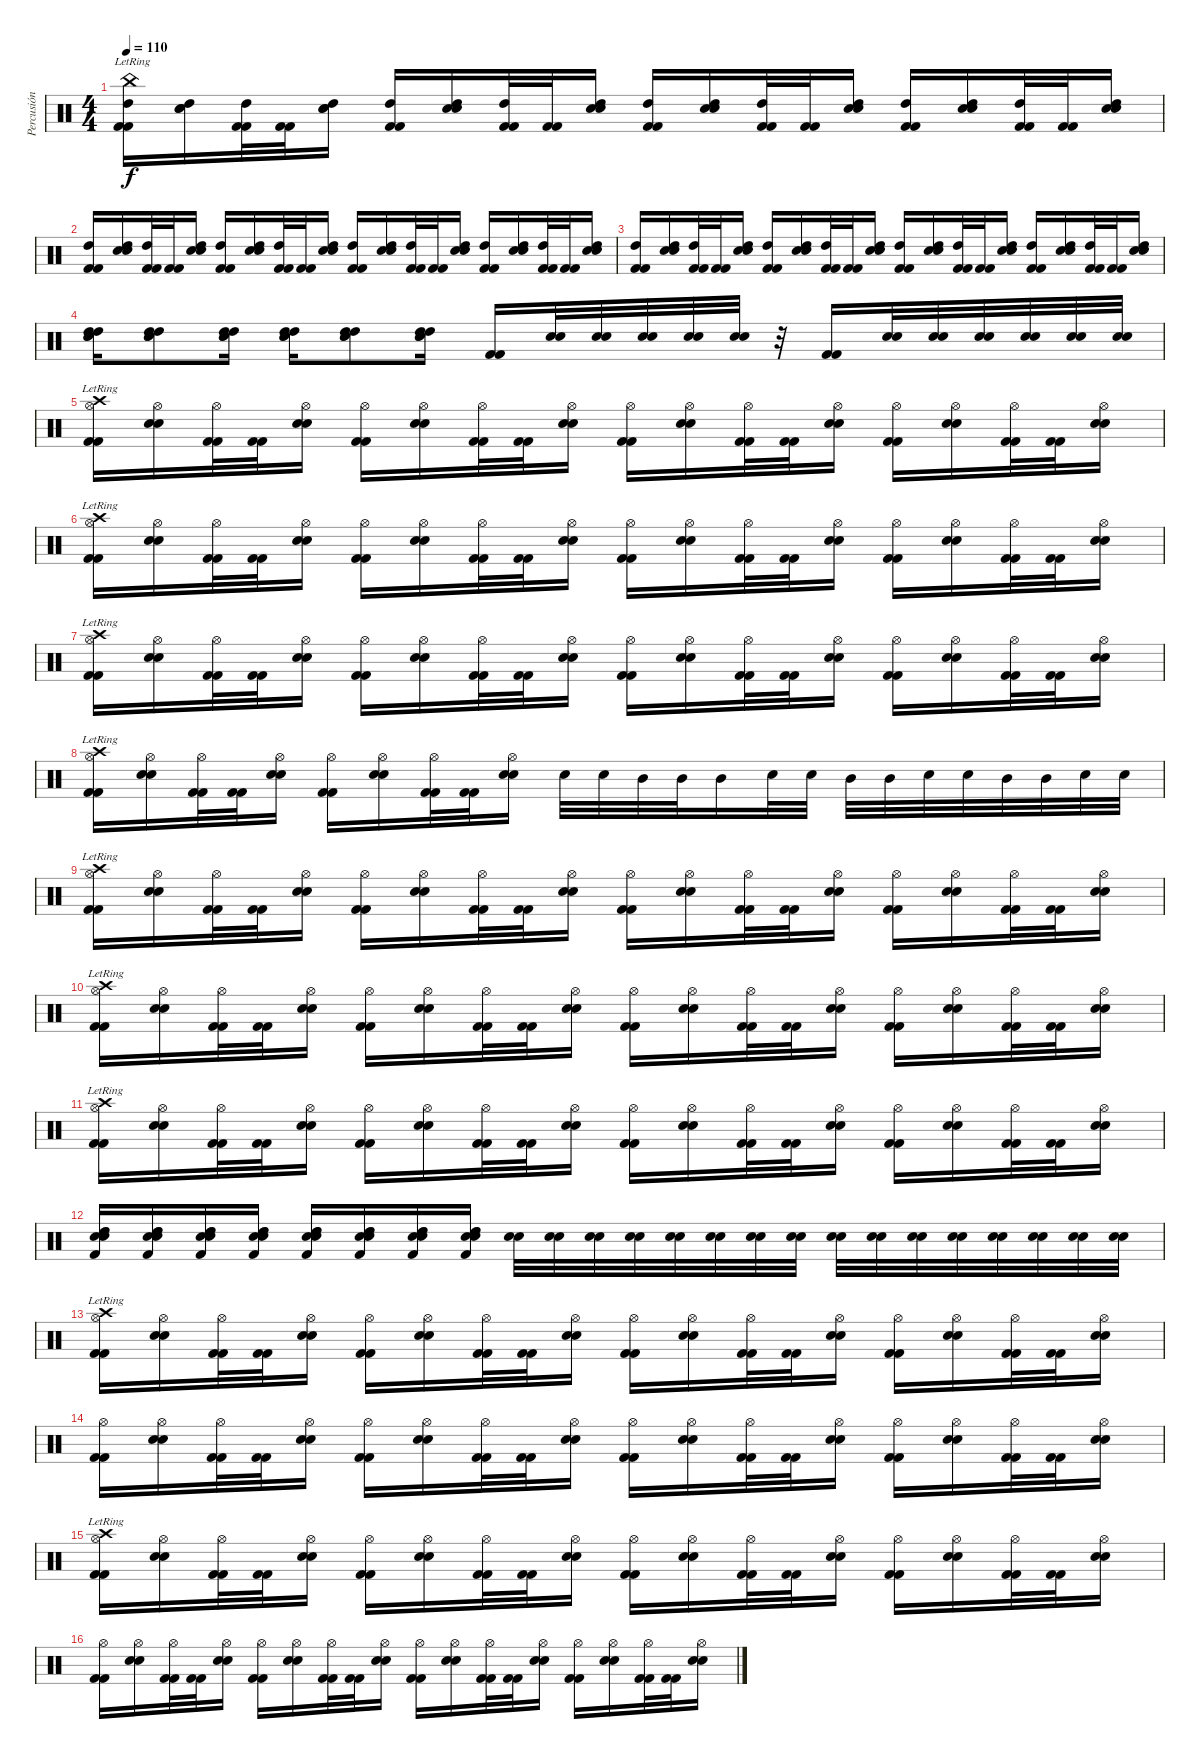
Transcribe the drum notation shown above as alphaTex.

\track ("Percusión" "Percusión") {instrument percussion}
\staff {score}
\articulation defaults
\ts (4 4)
\tempo 110
\clef neutral
\ks c
("Kick (hit) 2" "Kick (hit) 2" "High Tom (hit)" "China (hit)"{lr}).16{dy f} ("Snare (hit) 2" "Snare (hit) 2" "High Tom (hit)").16 ("Kick (hit) 2" "Kick (hit) 2" "High Tom (hit)").32 ("Kick (hit) 2" "Kick (hit) 2").32 ("Snare (hit) 2" "Snare (hit) 2" "High Tom (hit)").16 ("Kick (hit) 2" "Kick (hit) 2" "High Tom (hit)").16 ("Snare (hit) 2" "Snare (hit) 2" "High Tom (hit)").16 ("Kick (hit) 2" "Kick (hit) 2" "High Tom (hit)").32 ("Kick (hit) 2" "Kick (hit) 2").32 ("Snare (hit) 2" "Snare (hit) 2" "High Tom (hit)").16 ("Kick (hit) 2" "Kick (hit) 2" "High Tom (hit)").16 ("Snare (hit) 2" "Snare (hit) 2" "High Tom (hit)").16 ("Kick (hit) 2" "Kick (hit) 2" "High Tom (hit)").32 ("Kick (hit) 2" "Kick (hit) 2").32 ("Snare (hit) 2" "Snare (hit) 2" "High Tom (hit)").16 ("Kick (hit) 2" "Kick (hit) 2" "High Tom (hit)").16 ("Snare (hit) 2" "Snare (hit) 2" "High Tom (hit)").16 ("Kick (hit) 2" "Kick (hit) 2" "High Tom (hit)").32 ("Kick (hit) 2" "Kick (hit) 2").32 ("Snare (hit) 2" "Snare (hit) 2" "High Tom (hit)").16 |
("Kick (hit) 2" "Kick (hit) 2" "High Tom (hit)").16 ("Snare (hit) 2" "Snare (hit) 2" "High Tom (hit)").16 ("Kick (hit) 2" "Kick (hit) 2" "High Tom (hit)").32 ("Kick (hit) 2" "Kick (hit) 2").32 ("Snare (hit) 2" "Snare (hit) 2" "High Tom (hit)").16 ("Kick (hit) 2" "Kick (hit) 2" "High Tom (hit)").16 ("Snare (hit) 2" "Snare (hit) 2" "High Tom (hit)").16 ("Kick (hit) 2" "Kick (hit) 2" "High Tom (hit)").32 ("Kick (hit) 2" "Kick (hit) 2").32 ("Snare (hit) 2" "Snare (hit) 2" "High Tom (hit)").16 ("Kick (hit) 2" "Kick (hit) 2" "High Tom (hit)").16 ("Snare (hit) 2" "Snare (hit) 2" "High Tom (hit)").16 ("Kick (hit) 2" "Kick (hit) 2" "High Tom (hit)").32 ("Kick (hit) 2" "Kick (hit) 2").32 ("Snare (hit) 2" "Snare (hit) 2" "High Tom (hit)").16 ("Kick (hit) 2" "Kick (hit) 2" "High Tom (hit)").16 ("Snare (hit) 2" "Snare (hit) 2" "High Tom (hit)").16 ("Kick (hit) 2" "Kick (hit) 2" "High Tom (hit)").32 ("Kick (hit) 2" "Kick (hit) 2").32 ("Snare (hit) 2" "Snare (hit) 2" "High Tom (hit)").16 |
("Kick (hit) 2" "Kick (hit) 2" "High Tom (hit)").16 ("Snare (hit) 2" "Snare (hit) 2" "High Tom (hit)").16 ("Kick (hit) 2" "Kick (hit) 2" "High Tom (hit)").32 ("Kick (hit) 2" "Kick (hit) 2").32 ("Snare (hit) 2" "Snare (hit) 2" "High Tom (hit)").16 ("Kick (hit) 2" "Kick (hit) 2" "High Tom (hit)").16 ("Snare (hit) 2" "Snare (hit) 2" "High Tom (hit)").16 ("Kick (hit) 2" "Kick (hit) 2" "High Tom (hit)").32 ("Kick (hit) 2" "Kick (hit) 2").32 ("Snare (hit) 2" "Snare (hit) 2" "High Tom (hit)").16 ("Kick (hit) 2" "Kick (hit) 2" "High Tom (hit)").16 ("Snare (hit) 2" "Snare (hit) 2" "High Tom (hit)").16 ("Kick (hit) 2" "Kick (hit) 2" "High Tom (hit)").32 ("Kick (hit) 2" "Kick (hit) 2").32 ("Snare (hit) 2" "Snare (hit) 2" "High Tom (hit)").16 ("Kick (hit) 2" "Kick (hit) 2" "High Tom (hit)").16 ("Snare (hit) 2" "Snare (hit) 2" "High Tom (hit)").16 ("Kick (hit) 2" "Kick (hit) 2" "High Tom (hit)").32 ("Kick (hit) 2" "Kick (hit) 2").32 ("Snare (hit) 2" "Snare (hit) 2" "High Tom (hit)").16 |
("Snare (hit) 2" "Snare (hit) 2" "High Tom (hit)" "High Tom (hit)").16 ("Snare (hit) 2" "Snare (hit) 2" "High Tom (hit)" "High Tom (hit)").8 ("Snare (hit) 2" "Snare (hit) 2" "High Tom (hit)" "High Tom (hit)").16 ("Snare (hit) 2" "Snare (hit) 2" "High Tom (hit)" "High Tom (hit)").16 ("Snare (hit) 2" "Snare (hit) 2" "High Tom (hit)" "High Tom (hit)").8 ("Snare (hit) 2" "Snare (hit) 2" "High Tom (hit)" "High Tom (hit)").16 ("Kick (hit) 2" "Kick (hit) 2").16 ("Snare (hit) 2" "Snare (hit) 2").32 ("Snare (hit) 2" "Snare (hit) 2").32 ("Snare (hit) 2" "Snare (hit) 2").32 ("Snare (hit) 2" "Snare (hit) 2").32 ("Snare (hit) 2" "Snare (hit) 2").32 r.32 ("Kick (hit) 2" "Kick (hit) 2").16 ("Snare (hit) 2" "Snare (hit) 2").32 ("Snare (hit) 2" "Snare (hit) 2").32 ("Snare (hit) 2" "Snare (hit) 2").32 ("Snare (hit) 2" "Snare (hit) 2").32 ("Snare (hit) 2" "Snare (hit) 2").32 ("Snare (hit) 2" "Snare (hit) 2").32 |
("Kick (hit) 2" "Kick (hit) 2" "Hi-Hat (open)" "Crash high (hit)"{lr}).16 ("Snare (hit) 2" "Snare (hit) 2" "Hi-Hat (open)").16 ("Kick (hit) 2" "Kick (hit) 2" "Hi-Hat (open)").32 ("Kick (hit) 2" "Kick (hit) 2").32 ("Snare (hit) 2" "Snare (hit) 2" "Hi-Hat (open)").16 ("Kick (hit) 2" "Kick (hit) 2" "Hi-Hat (open)").16 ("Snare (hit) 2" "Snare (hit) 2" "Hi-Hat (open)").16 ("Kick (hit) 2" "Kick (hit) 2" "Hi-Hat (open)").32 ("Kick (hit) 2" "Kick (hit) 2").32 ("Snare (hit) 2" "Snare (hit) 2" "Hi-Hat (open)").16 ("Kick (hit) 2" "Kick (hit) 2" "Hi-Hat (open)").16 ("Snare (hit) 2" "Snare (hit) 2" "Hi-Hat (open)").16 ("Kick (hit) 2" "Kick (hit) 2" "Hi-Hat (open)").32 ("Kick (hit) 2" "Kick (hit) 2").32 ("Snare (hit) 2" "Snare (hit) 2" "Hi-Hat (open)").16 ("Kick (hit) 2" "Kick (hit) 2" "Hi-Hat (open)").16 ("Snare (hit) 2" "Snare (hit) 2" "Hi-Hat (open)").16 ("Kick (hit) 2" "Kick (hit) 2" "Hi-Hat (open)").32 ("Kick (hit) 2" "Kick (hit) 2").32 ("Snare (hit) 2" "Snare (hit) 2" "Hi-Hat (open)").16 |
("Kick (hit) 2" "Kick (hit) 2" "Hi-Hat (open)" "Crash high (hit)"{lr}).16 ("Snare (hit) 2" "Snare (hit) 2" "Hi-Hat (open)").16 ("Kick (hit) 2" "Kick (hit) 2" "Hi-Hat (open)").32 ("Kick (hit) 2" "Kick (hit) 2").32 ("Snare (hit) 2" "Snare (hit) 2" "Hi-Hat (open)").16 ("Kick (hit) 2" "Kick (hit) 2" "Hi-Hat (open)").16 ("Snare (hit) 2" "Snare (hit) 2" "Hi-Hat (open)").16 ("Kick (hit) 2" "Kick (hit) 2" "Hi-Hat (open)").32 ("Kick (hit) 2" "Kick (hit) 2").32 ("Snare (hit) 2" "Snare (hit) 2" "Hi-Hat (open)").16 ("Kick (hit) 2" "Kick (hit) 2" "Hi-Hat (open)").16 ("Snare (hit) 2" "Snare (hit) 2" "Hi-Hat (open)").16 ("Kick (hit) 2" "Kick (hit) 2" "Hi-Hat (open)").32 ("Kick (hit) 2" "Kick (hit) 2").32 ("Snare (hit) 2" "Snare (hit) 2" "Hi-Hat (open)").16 ("Kick (hit) 2" "Kick (hit) 2" "Hi-Hat (open)").16 ("Snare (hit) 2" "Snare (hit) 2" "Hi-Hat (open)").16 ("Kick (hit) 2" "Kick (hit) 2" "Hi-Hat (open)").32 ("Kick (hit) 2" "Kick (hit) 2").32 ("Snare (hit) 2" "Snare (hit) 2" "Hi-Hat (open)").16 |
("Kick (hit) 2" "Kick (hit) 2" "Hi-Hat (open)" "Crash high (hit)"{lr}).16 ("Snare (hit) 2" "Snare (hit) 2" "Hi-Hat (open)").16 ("Kick (hit) 2" "Kick (hit) 2" "Hi-Hat (open)").32 ("Kick (hit) 2" "Kick (hit) 2").32 ("Snare (hit) 2" "Snare (hit) 2" "Hi-Hat (open)").16 ("Kick (hit) 2" "Kick (hit) 2" "Hi-Hat (open)").16 ("Snare (hit) 2" "Snare (hit) 2" "Hi-Hat (open)").16 ("Kick (hit) 2" "Kick (hit) 2" "Hi-Hat (open)").32 ("Kick (hit) 2" "Kick (hit) 2").32 ("Snare (hit) 2" "Snare (hit) 2" "Hi-Hat (open)").16 ("Kick (hit) 2" "Kick (hit) 2" "Hi-Hat (open)").16 ("Snare (hit) 2" "Snare (hit) 2" "Hi-Hat (open)").16 ("Kick (hit) 2" "Kick (hit) 2" "Hi-Hat (open)").32 ("Kick (hit) 2" "Kick (hit) 2").32 ("Snare (hit) 2" "Snare (hit) 2" "Hi-Hat (open)").16 ("Kick (hit) 2" "Kick (hit) 2" "Hi-Hat (open)").16 ("Snare (hit) 2" "Snare (hit) 2" "Hi-Hat (open)").16 ("Kick (hit) 2" "Kick (hit) 2" "Hi-Hat (open)").32 ("Kick (hit) 2" "Kick (hit) 2").32 ("Snare (hit) 2" "Snare (hit) 2" "Hi-Hat (open)").16 |
("Kick (hit) 2" "Kick (hit) 2" "Hi-Hat (open)" "Crash high (hit)"{lr}).16 ("Snare (hit) 2" "Snare (hit) 2" "Hi-Hat (open)").16 ("Kick (hit) 2" "Kick (hit) 2" "Hi-Hat (open)").32 ("Kick (hit) 2" "Kick (hit) 2").32 ("Snare (hit) 2" "Snare (hit) 2" "Hi-Hat (open)").16 ("Kick (hit) 2" "Kick (hit) 2" "Hi-Hat (open)").16 ("Snare (hit) 2" "Snare (hit) 2" "Hi-Hat (open)").16 ("Kick (hit) 2" "Kick (hit) 2" "Hi-Hat (open)").32 ("Kick (hit) 2" "Kick (hit) 2").32 ("Snare (hit) 2" "Snare (hit) 2" "Hi-Hat (open)").16 "Snare (hit) 2".32 "Snare (hit) 2".32 "Mid Tom (hit)".32 "Mid Tom (hit)".32 "Mid Tom (hit)".16 "Snare (hit) 2".32 "Snare (hit) 2".32 "Mid Tom (hit)".32 "Mid Tom (hit)".32 "Snare (hit) 2".32 "Snare (hit) 2".32 "Mid Tom (hit)".32 "Mid Tom (hit)".32 "Snare (hit) 2".32 "Snare (hit) 2".32 |
("Kick (hit) 2" "Kick (hit) 2" "Hi-Hat (open)" "Crash high (hit)"{lr}).16 ("Snare (hit) 2" "Snare (hit) 2" "Hi-Hat (open)").16 ("Kick (hit) 2" "Kick (hit) 2" "Hi-Hat (open)").32 ("Kick (hit) 2" "Kick (hit) 2").32 ("Snare (hit) 2" "Snare (hit) 2" "Hi-Hat (open)").16 ("Kick (hit) 2" "Kick (hit) 2" "Hi-Hat (open)").16 ("Snare (hit) 2" "Snare (hit) 2" "Hi-Hat (open)").16 ("Kick (hit) 2" "Kick (hit) 2" "Hi-Hat (open)").32 ("Kick (hit) 2" "Kick (hit) 2").32 ("Snare (hit) 2" "Snare (hit) 2" "Hi-Hat (open)").16 ("Kick (hit) 2" "Kick (hit) 2" "Hi-Hat (open)").16 ("Snare (hit) 2" "Snare (hit) 2" "Hi-Hat (open)").16 ("Kick (hit) 2" "Kick (hit) 2" "Hi-Hat (open)").32 ("Kick (hit) 2" "Kick (hit) 2").32 ("Snare (hit) 2" "Snare (hit) 2" "Hi-Hat (open)").16 ("Kick (hit) 2" "Kick (hit) 2" "Hi-Hat (open)").16 ("Snare (hit) 2" "Snare (hit) 2" "Hi-Hat (open)").16 ("Kick (hit) 2" "Kick (hit) 2" "Hi-Hat (open)").32 ("Kick (hit) 2" "Kick (hit) 2").32 ("Snare (hit) 2" "Snare (hit) 2" "Hi-Hat (open)").16 |
("Kick (hit) 2" "Kick (hit) 2" "Hi-Hat (open)" "Crash high (hit)"{lr}).16 ("Snare (hit) 2" "Snare (hit) 2" "Hi-Hat (open)").16 ("Kick (hit) 2" "Kick (hit) 2" "Hi-Hat (open)").32 ("Kick (hit) 2" "Kick (hit) 2").32 ("Snare (hit) 2" "Snare (hit) 2" "Hi-Hat (open)").16 ("Kick (hit) 2" "Kick (hit) 2" "Hi-Hat (open)").16 ("Snare (hit) 2" "Snare (hit) 2" "Hi-Hat (open)").16 ("Kick (hit) 2" "Kick (hit) 2" "Hi-Hat (open)").32 ("Kick (hit) 2" "Kick (hit) 2").32 ("Snare (hit) 2" "Snare (hit) 2" "Hi-Hat (open)").16 ("Kick (hit) 2" "Kick (hit) 2" "Hi-Hat (open)").16 ("Snare (hit) 2" "Snare (hit) 2" "Hi-Hat (open)").16 ("Kick (hit) 2" "Kick (hit) 2" "Hi-Hat (open)").32 ("Kick (hit) 2" "Kick (hit) 2").32 ("Snare (hit) 2" "Snare (hit) 2" "Hi-Hat (open)").16 ("Kick (hit) 2" "Kick (hit) 2" "Hi-Hat (open)").16 ("Snare (hit) 2" "Snare (hit) 2" "Hi-Hat (open)").16 ("Kick (hit) 2" "Kick (hit) 2" "Hi-Hat (open)").32 ("Kick (hit) 2" "Kick (hit) 2").32 ("Snare (hit) 2" "Snare (hit) 2" "Hi-Hat (open)").16 |
("Kick (hit) 2" "Kick (hit) 2" "Hi-Hat (open)" "Crash high (hit)"{lr}).16 ("Snare (hit) 2" "Snare (hit) 2" "Hi-Hat (open)").16 ("Kick (hit) 2" "Kick (hit) 2" "Hi-Hat (open)").32 ("Kick (hit) 2" "Kick (hit) 2").32 ("Snare (hit) 2" "Snare (hit) 2" "Hi-Hat (open)").16 ("Kick (hit) 2" "Kick (hit) 2" "Hi-Hat (open)").16 ("Snare (hit) 2" "Snare (hit) 2" "Hi-Hat (open)").16 ("Kick (hit) 2" "Kick (hit) 2" "Hi-Hat (open)").32 ("Kick (hit) 2" "Kick (hit) 2").32 ("Snare (hit) 2" "Snare (hit) 2" "Hi-Hat (open)").16 ("Kick (hit) 2" "Kick (hit) 2" "Hi-Hat (open)").16 ("Snare (hit) 2" "Snare (hit) 2" "Hi-Hat (open)").16 ("Kick (hit) 2" "Kick (hit) 2" "Hi-Hat (open)").32 ("Kick (hit) 2" "Kick (hit) 2").32 ("Snare (hit) 2" "Snare (hit) 2" "Hi-Hat (open)").16 ("Kick (hit) 2" "Kick (hit) 2" "Hi-Hat (open)").16 ("Snare (hit) 2" "Snare (hit) 2" "Hi-Hat (open)").16 ("Kick (hit) 2" "Kick (hit) 2" "Hi-Hat (open)").32 ("Kick (hit) 2" "Kick (hit) 2").32 ("Snare (hit) 2" "Snare (hit) 2" "Hi-Hat (open)").16 |
("Snare (hit) 2" "Snare (hit) 2" "High Tom (hit)" "High Tom (hit)" "Kick (hit) 2").16 ("Snare (hit) 2" "Snare (hit) 2" "High Tom (hit)" "High Tom (hit)" "Kick (hit) 2").16 ("Snare (hit) 2" "Snare (hit) 2" "High Tom (hit)" "High Tom (hit)" "Kick (hit) 2").16 ("Snare (hit) 2" "Snare (hit) 2" "High Tom (hit)" "High Tom (hit)" "Kick (hit) 2").16 ("Snare (hit) 2" "Snare (hit) 2" "High Tom (hit)" "High Tom (hit)" "Kick (hit) 2").16 ("Snare (hit) 2" "Snare (hit) 2" "High Tom (hit)" "High Tom (hit)" "Kick (hit) 2").16 ("Snare (hit) 2" "Snare (hit) 2" "High Tom (hit)" "High Tom (hit)" "Kick (hit) 2").16 ("Snare (hit) 2" "Snare (hit) 2" "High Tom (hit)" "High Tom (hit)" "Kick (hit) 2").16 ("Snare (hit) 2" "Snare (hit) 2").32 ("Snare (hit) 2" "Snare (hit) 2").32 ("Snare (hit) 2" "Snare (hit) 2").32 ("Snare (hit) 2" "Snare (hit) 2").32 ("Snare (hit) 2" "Snare (hit) 2").32 ("Snare (hit) 2" "Snare (hit) 2").32 ("Snare (hit) 2" "Snare (hit) 2").32 ("Snare (hit) 2" "Snare (hit) 2").32 ("Snare (hit) 2" "Snare (hit) 2").32 ("Snare (hit) 2" "Snare (hit) 2").32 ("Snare (hit) 2" "Snare (hit) 2").32 ("Snare (hit) 2" "Snare (hit) 2").32 ("Snare (hit) 2" "Snare (hit) 2").32 ("Snare (hit) 2" "Snare (hit) 2").32 ("Snare (hit) 2" "Snare (hit) 2").32 ("Snare (hit) 2" "Snare (hit) 2").32 |
("Kick (hit) 2" "Kick (hit) 2" "Hi-Hat (open)" "Crash high (hit)"{lr}).16 ("Snare (hit) 2" "Snare (hit) 2" "Hi-Hat (open)").16 ("Kick (hit) 2" "Kick (hit) 2" "Hi-Hat (open)").32 ("Kick (hit) 2" "Kick (hit) 2").32 ("Snare (hit) 2" "Snare (hit) 2" "Hi-Hat (open)").16 ("Kick (hit) 2" "Kick (hit) 2" "Hi-Hat (open)").16 ("Snare (hit) 2" "Snare (hit) 2" "Hi-Hat (open)").16 ("Kick (hit) 2" "Kick (hit) 2" "Hi-Hat (open)").32 ("Kick (hit) 2" "Kick (hit) 2").32 ("Snare (hit) 2" "Snare (hit) 2" "Hi-Hat (open)").16 ("Kick (hit) 2" "Kick (hit) 2" "Hi-Hat (open)").16 ("Snare (hit) 2" "Snare (hit) 2" "Hi-Hat (open)").16 ("Kick (hit) 2" "Kick (hit) 2" "Hi-Hat (open)").32 ("Kick (hit) 2" "Kick (hit) 2").32 ("Snare (hit) 2" "Snare (hit) 2" "Hi-Hat (open)").16 ("Kick (hit) 2" "Kick (hit) 2" "Hi-Hat (open)").16 ("Snare (hit) 2" "Snare (hit) 2" "Hi-Hat (open)").16 ("Kick (hit) 2" "Kick (hit) 2" "Hi-Hat (open)").32 ("Kick (hit) 2" "Kick (hit) 2").32 ("Snare (hit) 2" "Snare (hit) 2" "Hi-Hat (open)").16 |
("Kick (hit) 2" "Kick (hit) 2" "Hi-Hat (open)").16 ("Snare (hit) 2" "Snare (hit) 2" "Hi-Hat (open)").16 ("Kick (hit) 2" "Kick (hit) 2" "Hi-Hat (open)").32 ("Kick (hit) 2" "Kick (hit) 2").32 ("Snare (hit) 2" "Snare (hit) 2" "Hi-Hat (open)").16 ("Kick (hit) 2" "Kick (hit) 2" "Hi-Hat (open)").16 ("Snare (hit) 2" "Snare (hit) 2" "Hi-Hat (open)").16 ("Kick (hit) 2" "Kick (hit) 2" "Hi-Hat (open)").32 ("Kick (hit) 2" "Kick (hit) 2").32 ("Snare (hit) 2" "Snare (hit) 2" "Hi-Hat (open)").16 ("Kick (hit) 2" "Kick (hit) 2" "Hi-Hat (open)").16 ("Snare (hit) 2" "Snare (hit) 2" "Hi-Hat (open)").16 ("Kick (hit) 2" "Kick (hit) 2" "Hi-Hat (open)").32 ("Kick (hit) 2" "Kick (hit) 2").32 ("Snare (hit) 2" "Snare (hit) 2" "Hi-Hat (open)").16 ("Kick (hit) 2" "Kick (hit) 2" "Hi-Hat (open)").16 ("Snare (hit) 2" "Snare (hit) 2" "Hi-Hat (open)").16 ("Kick (hit) 2" "Kick (hit) 2" "Hi-Hat (open)").32 ("Kick (hit) 2" "Kick (hit) 2").32 ("Snare (hit) 2" "Snare (hit) 2" "Hi-Hat (open)").16 |
("Kick (hit) 2" "Kick (hit) 2" "Hi-Hat (open)" "Crash high (hit)"{lr}).16 ("Snare (hit) 2" "Snare (hit) 2" "Hi-Hat (open)").16 ("Kick (hit) 2" "Kick (hit) 2" "Hi-Hat (open)").32 ("Kick (hit) 2" "Kick (hit) 2").32 ("Snare (hit) 2" "Snare (hit) 2" "Hi-Hat (open)").16 ("Kick (hit) 2" "Kick (hit) 2" "Hi-Hat (open)").16 ("Snare (hit) 2" "Snare (hit) 2" "Hi-Hat (open)").16 ("Kick (hit) 2" "Kick (hit) 2" "Hi-Hat (open)").32 ("Kick (hit) 2" "Kick (hit) 2").32 ("Snare (hit) 2" "Snare (hit) 2" "Hi-Hat (open)").16 ("Kick (hit) 2" "Kick (hit) 2" "Hi-Hat (open)").16 ("Snare (hit) 2" "Snare (hit) 2" "Hi-Hat (open)").16 ("Kick (hit) 2" "Kick (hit) 2" "Hi-Hat (open)").32 ("Kick (hit) 2" "Kick (hit) 2").32 ("Snare (hit) 2" "Snare (hit) 2" "Hi-Hat (open)").16 ("Kick (hit) 2" "Kick (hit) 2" "Hi-Hat (open)").16 ("Snare (hit) 2" "Snare (hit) 2" "Hi-Hat (open)").16 ("Kick (hit) 2" "Kick (hit) 2" "Hi-Hat (open)").32 ("Kick (hit) 2" "Kick (hit) 2").32 ("Snare (hit) 2" "Snare (hit) 2" "Hi-Hat (open)").16 |
("Kick (hit) 2" "Kick (hit) 2" "Hi-Hat (open)").16 ("Snare (hit) 2" "Snare (hit) 2" "Hi-Hat (open)").16 ("Kick (hit) 2" "Kick (hit) 2" "Hi-Hat (open)").32 ("Kick (hit) 2" "Kick (hit) 2").32 ("Snare (hit) 2" "Snare (hit) 2" "Hi-Hat (open)").16 ("Kick (hit) 2" "Kick (hit) 2" "Hi-Hat (open)").16 ("Snare (hit) 2" "Snare (hit) 2" "Hi-Hat (open)").16 ("Kick (hit) 2" "Kick (hit) 2" "Hi-Hat (open)").32 ("Kick (hit) 2" "Kick (hit) 2").32 ("Snare (hit) 2" "Snare (hit) 2" "Hi-Hat (open)").16 ("Kick (hit) 2" "Kick (hit) 2" "Hi-Hat (open)").16 ("Snare (hit) 2" "Snare (hit) 2" "Hi-Hat (open)").16 ("Kick (hit) 2" "Kick (hit) 2" "Hi-Hat (open)").32 ("Kick (hit) 2" "Kick (hit) 2").32 ("Snare (hit) 2" "Snare (hit) 2" "Hi-Hat (open)").16 ("Kick (hit) 2" "Kick (hit) 2" "Hi-Hat (open)").16 ("Snare (hit) 2" "Snare (hit) 2" "Hi-Hat (open)").16 ("Kick (hit) 2" "Kick (hit) 2" "Hi-Hat (open)").32 ("Kick (hit) 2" "Kick (hit) 2").32 ("Snare (hit) 2" "Snare (hit) 2" "Hi-Hat (open)").16
